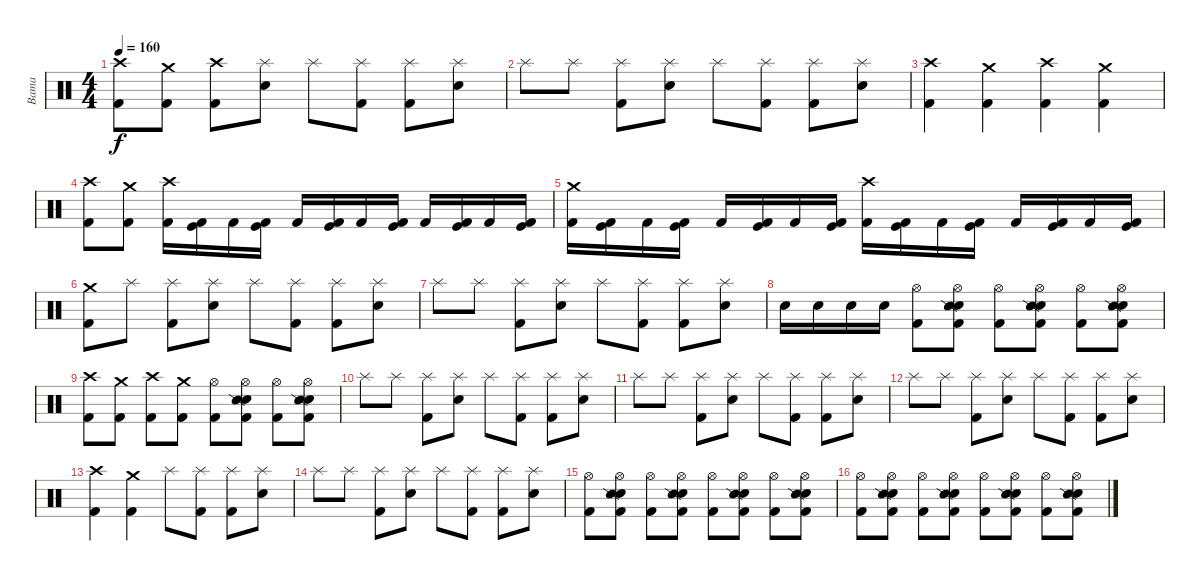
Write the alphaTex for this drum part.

\track ("Bama" "Bama") {instrument percussion}
\staff {score}
\articulation defaults
\ts (4 4)
\tempo 160
\clef neutral
\ks c
("Crash high (hit)" "Kick (hit) 2").8{dy f} ("Crash medium (hit)" "Kick (hit) 2").8 ("Crash high (hit)" "Kick (hit) 2").8 ("Splash (hit)" "Electric Snare (hit)").8 "Splash (hit)".8 ("Splash (hit)" "Kick (hit) 2").8 ("Splash (hit)" "Kick (hit) 2").8 ("Splash (hit)" "Electric Snare (hit)").8 |
"Splash (hit)".8 "Splash (hit)".8 ("Splash (hit)" "Kick (hit) 2").8 ("Splash (hit)" "Electric Snare (hit)").8 "Splash (hit)".8 ("Splash (hit)" "Kick (hit) 2").8 ("Splash (hit)" "Kick (hit) 2").8 ("Splash (hit)" "Electric Snare (hit)").8 |
("Crash high (hit)" "Kick (hit) 2").4 ("Crash medium (hit)" "Kick (hit) 2").4 ("Crash high (hit)" "Kick (hit) 2").4 ("Crash medium (hit)" "Kick (hit) 2").4 |
("Crash high (hit)" "Kick (hit) 2").8 ("Crash medium (hit)" "Kick (hit) 2").8 ("Crash high (hit)" "Kick (hit) 2").16 ("Kick (hit)" "Kick (hit) 2").16 "Kick (hit) 2".16 ("Kick (hit)" "Kick (hit) 2").16 "Kick (hit) 2".16 ("Kick (hit)" "Kick (hit) 2").16 "Kick (hit) 2".16 ("Kick (hit)" "Kick (hit) 2").16 "Kick (hit) 2".16 ("Kick (hit)" "Kick (hit) 2").16 "Kick (hit) 2".16 ("Kick (hit)" "Kick (hit) 2").16 |
("Crash medium (hit)" "Kick (hit) 2").16 ("Kick (hit)" "Kick (hit) 2").16 "Kick (hit) 2".16 ("Kick (hit)" "Kick (hit) 2").16 "Kick (hit) 2".16 ("Kick (hit)" "Kick (hit) 2").16 "Kick (hit) 2".16 ("Kick (hit)" "Kick (hit) 2").16 ("Crash high (hit)" "Kick (hit) 2").16 ("Kick (hit)" "Kick (hit) 2").16 "Kick (hit) 2".16 ("Kick (hit)" "Kick (hit) 2").16 "Kick (hit) 2".16 ("Kick (hit)" "Kick (hit) 2").16 "Kick (hit) 2".16 ("Kick (hit)" "Kick (hit) 2").16 |
("Crash medium (hit)" "Kick (hit) 2").8 "Splash (hit)".8 ("Splash (hit)" "Kick (hit) 2").8 ("Splash (hit)" "Electric Snare (hit)").8 "Splash (hit)".8 ("Splash (hit)" "Kick (hit) 2").8 ("Splash (hit)" "Kick (hit) 2").8 ("Splash (hit)" "Electric Snare (hit)").8 |
"Splash (hit)".8 "Splash (hit)".8 ("Splash (hit)" "Kick (hit) 2").8 ("Splash (hit)" "Electric Snare (hit)").8 "Splash (hit)".8 ("Splash (hit)" "Kick (hit) 2").8 ("Splash (hit)" "Kick (hit) 2").8 ("Splash (hit)" "Electric Snare (hit)").8 |
"Electric Snare (hit)".16 "Electric Snare (hit)".16 "Electric Snare (hit)".16 "Electric Snare (hit)".16 ("Hi-Hat (open)" "Kick (hit) 2").8 ("Hi-Hat (open)" "Electric Snare (hit)" "Snare (side stick) 2" "Kick (hit) 2").8 ("Hi-Hat (open)" "Kick (hit) 2").8 ("Hi-Hat (open)" "Electric Snare (hit)" "Snare (side stick) 2" "Kick (hit) 2").8 ("Hi-Hat (open)" "Kick (hit) 2").8 ("Hi-Hat (open)" "Electric Snare (hit)" "Snare (side stick) 2" "Kick (hit) 2").8 |
("Crash high (hit)" "Kick (hit) 2").8 ("Crash medium (hit)" "Kick (hit) 2").8 ("Crash high (hit)" "Kick (hit) 2").8 ("Crash medium (hit)" "Kick (hit) 2").8 ("Hi-Hat (open)" "Kick (hit) 2").8 ("Hi-Hat (open)" "Electric Snare (hit)" "Snare (side stick) 2" "Kick (hit) 2").8 ("Hi-Hat (open)" "Kick (hit) 2").8 ("Hi-Hat (open)" "Electric Snare (hit)" "Snare (side stick) 2" "Kick (hit) 2").8 |
"Splash (hit)".8 "Splash (hit)".8 ("Splash (hit)" "Kick (hit) 2").8 ("Splash (hit)" "Electric Snare (hit)").8 "Splash (hit)".8 ("Splash (hit)" "Kick (hit) 2").8 ("Splash (hit)" "Kick (hit) 2").8 ("Splash (hit)" "Electric Snare (hit)").8 |
"Splash (hit)".8 "Splash (hit)".8 ("Splash (hit)" "Kick (hit) 2").8 ("Splash (hit)" "Electric Snare (hit)").8 "Splash (hit)".8 ("Splash (hit)" "Kick (hit) 2").8 ("Splash (hit)" "Kick (hit) 2").8 ("Splash (hit)" "Electric Snare (hit)").8 |
"Splash (hit)".8 "Splash (hit)".8 ("Splash (hit)" "Kick (hit) 2").8 ("Splash (hit)" "Electric Snare (hit)").8 "Splash (hit)".8 ("Splash (hit)" "Kick (hit) 2").8 ("Splash (hit)" "Kick (hit) 2").8 ("Splash (hit)" "Electric Snare (hit)").8 |
("Crash high (hit)" "Kick (hit) 2").4 ("Crash medium (hit)" "Kick (hit) 2").4 "Splash (hit)".8 ("Splash (hit)" "Kick (hit) 2").8 ("Splash (hit)" "Kick (hit) 2").8 ("Splash (hit)" "Electric Snare (hit)").8 |
"Splash (hit)".8 "Splash (hit)".8 ("Splash (hit)" "Kick (hit) 2").8 ("Splash (hit)" "Electric Snare (hit)").8 "Splash (hit)".8 ("Splash (hit)" "Kick (hit) 2").8 ("Splash (hit)" "Kick (hit) 2").8 ("Splash (hit)" "Electric Snare (hit)").8 |
("Hi-Hat (open)" "Kick (hit) 2").8 ("Hi-Hat (open)" "Electric Snare (hit)" "Snare (side stick) 2" "Kick (hit) 2").8 ("Hi-Hat (open)" "Kick (hit) 2").8 ("Hi-Hat (open)" "Electric Snare (hit)" "Snare (side stick) 2" "Kick (hit) 2").8 ("Hi-Hat (open)" "Kick (hit) 2").8 ("Hi-Hat (open)" "Electric Snare (hit)" "Snare (side stick) 2" "Kick (hit) 2").8 ("Hi-Hat (open)" "Kick (hit) 2").8 ("Hi-Hat (open)" "Electric Snare (hit)" "Snare (side stick) 2" "Kick (hit) 2").8 |
("Hi-Hat (open)" "Kick (hit) 2").8 ("Hi-Hat (open)" "Electric Snare (hit)" "Snare (side stick) 2" "Kick (hit) 2").8 ("Hi-Hat (open)" "Kick (hit) 2").8 ("Hi-Hat (open)" "Electric Snare (hit)" "Snare (side stick) 2" "Kick (hit) 2").8 ("Hi-Hat (open)" "Kick (hit) 2").8 ("Hi-Hat (open)" "Electric Snare (hit)" "Snare (side stick) 2" "Kick (hit) 2").8 ("Hi-Hat (open)" "Kick (hit) 2").8 ("Hi-Hat (open)" "Electric Snare (hit)" "Snare (side stick) 2" "Kick (hit) 2").8
